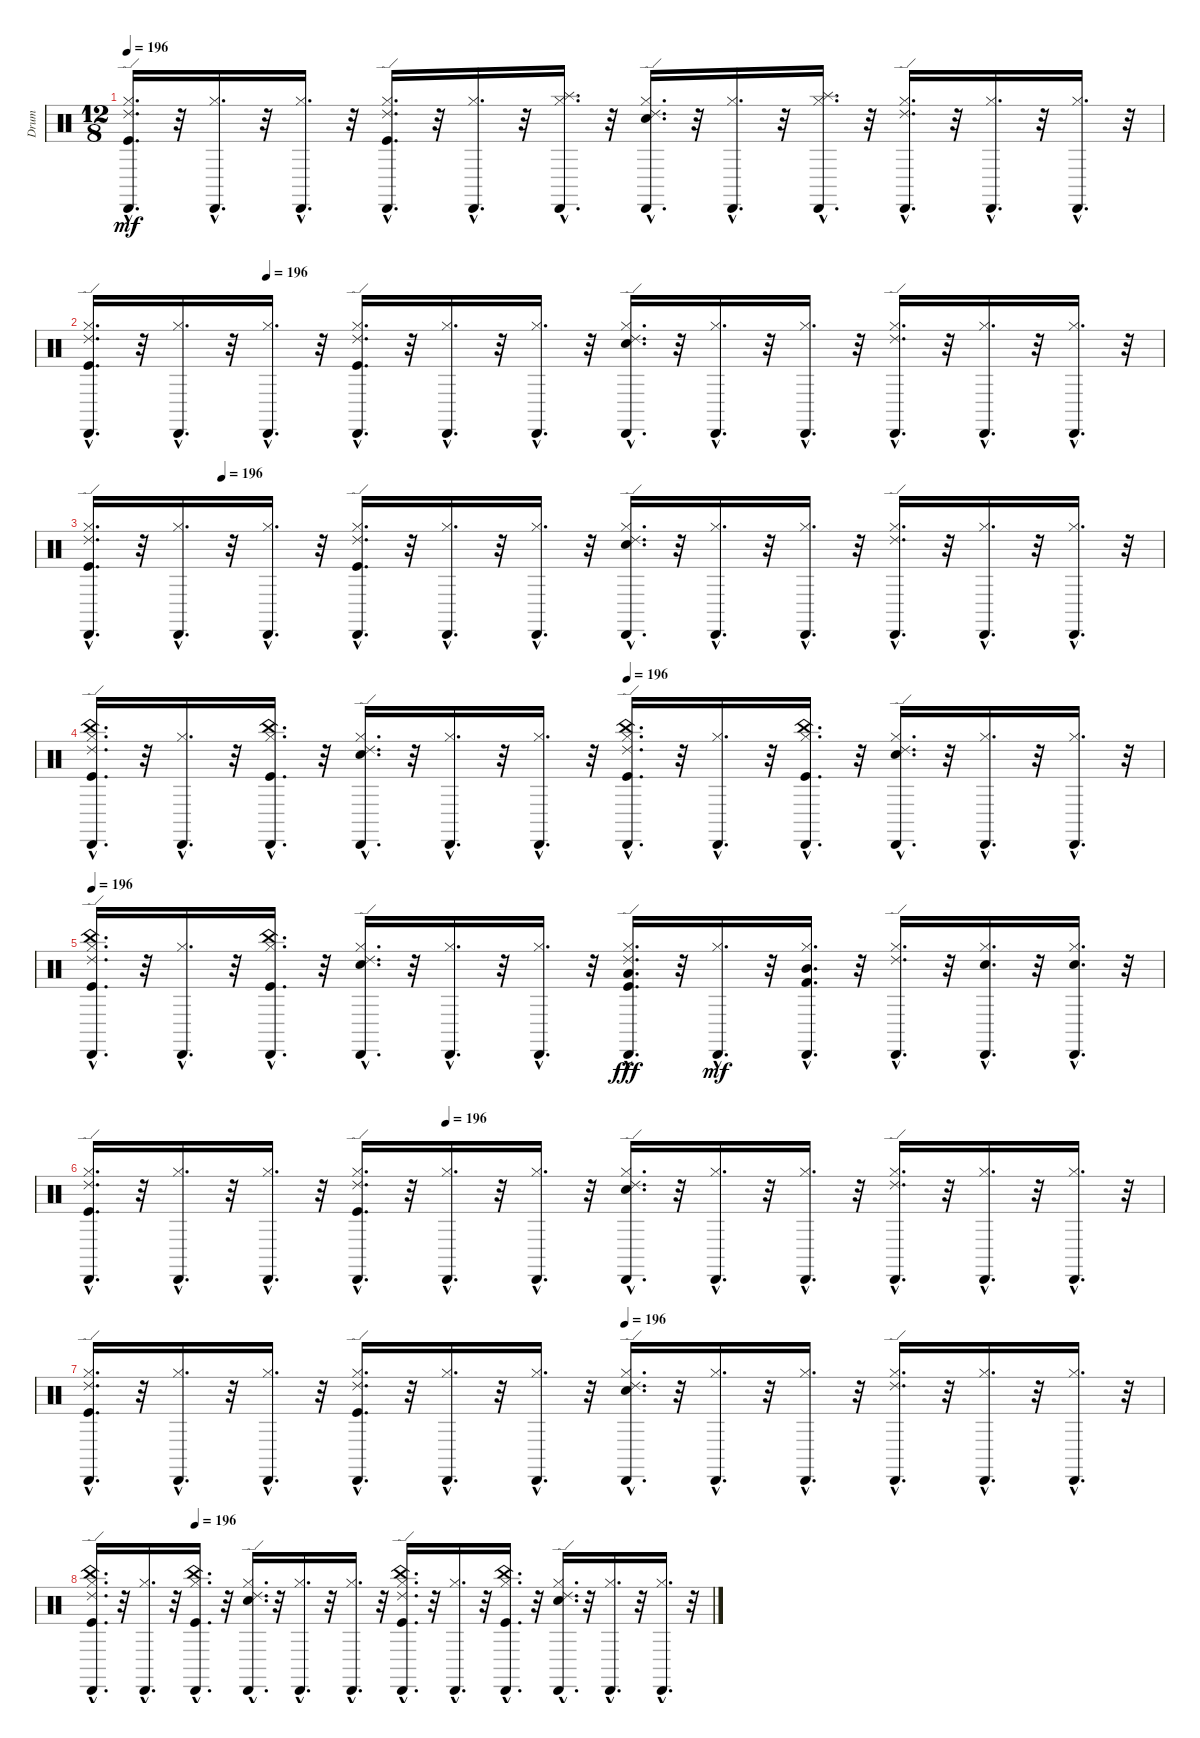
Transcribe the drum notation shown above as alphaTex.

\track ("Drum" "Drum") {instrument percussion}
\staff {score}
\articulation defaults
\ts (12 8)
\tempo 196
\clef neutral
\ks c
("Cabasa (hit)"{hac} "Kick (hit)"{hac} "Ride (edge) 2"{hac} "Hi-Hat (closed)"{hac}).16{d dy mf} r.32 ("Hi-Hat (closed)"{hac} "Cabasa (hit)"{hac}).16{d} r.32 ("Cabasa (hit)"{hac} "Hi-Hat (closed)"{hac}).16{d} r.32 ("Ride (edge) 2"{hac} "Cabasa (hit)"{hac} "Kick (hit)"{hac} "Hi-Hat (closed)"{hac}).16{d} r.32 ("Hi-Hat (closed)"{hac} "Cabasa (hit)"{hac}).16{d} r.32 ("Cabasa (hit)"{hac} "Splash (hit)"{hac} "Hi-Hat (closed)"{hac}).16{d} r.32 ("Ride (edge) 2"{hac} "Cabasa (hit)"{hac} "Hi-Hat (closed)"{hac} "Snare (hit) 2"{hac}).16{d} r.32 ("Cabasa (hit)"{hac} "Hi-Hat (closed)"{hac}).16{d} r.32 ("Hi-Hat (closed)"{hac} "Splash (hit)"{hac} "Cabasa (hit)"{hac}).16{d} r.32 ("Cabasa (hit)"{hac} "Ride (edge) 2"{hac} "Hi-Hat (closed)"{hac}).16{d} r.32 ("Cabasa (hit)"{hac} "Hi-Hat (closed)"{hac}).16{d} r.32 ("Hi-Hat (closed)"{hac} "Cabasa (hit)"{hac}).16{d} r.32 |
\tempo (196 0.16666666666666666)
("Hi-Hat (closed)"{hac} "Kick (hit)"{hac} "Cabasa (hit)"{hac} "Ride (edge) 2"{hac}).16{d} r.32 ("Hi-Hat (closed)"{hac} "Cabasa (hit)"{hac}).16{d} r.32 ("Hi-Hat (closed)"{hac} "Cabasa (hit)"{hac}).16{d} r.32 ("Hi-Hat (closed)"{hac} "Kick (hit)"{hac} "Cabasa (hit)"{hac} "Ride (edge) 2"{hac}).16{d} r.32 ("Hi-Hat (closed)"{hac} "Cabasa (hit)"{hac}).16{d} r.32 ("Hi-Hat (closed)"{hac} "Cabasa (hit)"{hac}).16{d} r.32 ("Hi-Hat (closed)"{hac} "Snare (hit) 2"{hac} "Cabasa (hit)"{hac} "Ride (edge) 2"{hac}).16{d} r.32 ("Hi-Hat (closed)"{hac} "Cabasa (hit)"{hac}).16{d} r.32 ("Hi-Hat (closed)"{hac} "Cabasa (hit)"{hac}).16{d} r.32 ("Hi-Hat (closed)"{hac} "Cabasa (hit)"{hac} "Ride (edge) 2"{hac}).16{d} r.32 ("Hi-Hat (closed)"{hac} "Cabasa (hit)"{hac}).16{d} r.32 ("Hi-Hat (closed)"{hac} "Cabasa (hit)"{hac}).16{d} r.32 |
\tempo (196 0.125)
("Ride (edge) 2"{hac} "Cabasa (hit)"{hac} "Kick (hit)"{hac} "Hi-Hat (closed)"{hac}).16{d} r.32 ("Cabasa (hit)"{hac} "Hi-Hat (closed)"{hac}).16{d} r.32 ("Cabasa (hit)"{hac} "Hi-Hat (closed)"{hac}).16{d} r.32 ("Ride (edge) 2"{hac} "Cabasa (hit)"{hac} "Kick (hit)"{hac} "Hi-Hat (closed)"{hac}).16{d} r.32 ("Cabasa (hit)"{hac} "Hi-Hat (closed)"{hac}).16{d} r.32 ("Cabasa (hit)"{hac} "Hi-Hat (closed)"{hac}).16{d} r.32 ("Ride (edge) 2"{hac} "Cabasa (hit)"{hac} "Snare (hit) 2"{hac} "Hi-Hat (closed)"{hac}).16{d} r.32 ("Cabasa (hit)"{hac} "Hi-Hat (closed)"{hac}).16{d} r.32 ("Cabasa (hit)"{hac} "Hi-Hat (closed)"{hac}).16{d} r.32 ("Ride (edge) 2"{hac} "Cabasa (hit)"{hac} "Hi-Hat (closed)"{hac}).16{d} r.32 ("Cabasa (hit)"{hac} "Hi-Hat (closed)"{hac}).16{d} r.32 ("Cabasa (hit)"{hac} "Hi-Hat (closed)"{hac}).16{d} r.32 |
\tempo (196 0.5)
("Hi-Hat (closed)"{hac} "Kick (hit)"{hac} "China (hit)"{hac} "Ride (edge) 2"{hac} "Cabasa (hit)"{hac}).16{d} r.32 ("Cabasa (hit)"{hac} "Hi-Hat (closed)"{hac}).16{d} r.32 ("Hi-Hat (closed)"{hac} "Cabasa (hit)"{hac} "China (hit)"{hac} "Kick (hit)"{hac}).16{d} r.32 ("Hi-Hat (closed)"{hac} "Cabasa (hit)"{hac} "Ride (edge) 2"{hac} "Snare (hit) 2"{hac}).16{d} r.32 ("Hi-Hat (closed)"{hac} "Cabasa (hit)"{hac}).16{d} r.32 ("Cabasa (hit)"{hac} "Hi-Hat (closed)"{hac}).16{d} r.32 ("Ride (edge) 2"{hac} "Hi-Hat (closed)"{hac} "Kick (hit)"{hac} "China (hit)"{hac} "Cabasa (hit)"{hac}).16{d} r.32 ("Hi-Hat (closed)"{hac} "Cabasa (hit)"{hac}).16{d} r.32 ("China (hit)"{hac} "Cabasa (hit)"{hac} "Kick (hit)"{hac} "Hi-Hat (closed)"{hac}).16{d} r.32 ("Ride (edge) 2"{hac} "Cabasa (hit)"{hac} "Hi-Hat (closed)"{hac} "Snare (hit) 2"{hac}).16{d} r.32 ("Cabasa (hit)"{hac} "Hi-Hat (closed)"{hac}).16{d} r.32 ("Cabasa (hit)"{hac} "Hi-Hat (closed)"{hac}).16{d} r.32 |
\tempo 196
("China (hit)"{hac} "Kick (hit)"{hac} "Hi-Hat (closed)"{hac} "Cabasa (hit)"{hac} "Ride (edge) 2"{hac}).16{d} r.32 ("Hi-Hat (closed)"{hac} "Cabasa (hit)"{hac}).16{d} r.32 ("Hi-Hat (closed)"{hac} "Kick (hit)"{hac} "China (hit)"{hac} "Cabasa (hit)"{hac}).16{d} r.32 ("Ride (edge) 2"{hac} "Hi-Hat (closed)"{hac} "Snare (hit) 2"{hac} "Cabasa (hit)"{hac}).16{d} r.32 ("Cabasa (hit)"{hac} "Hi-Hat (closed)"{hac}).16{d} r.32 ("Hi-Hat (closed)"{hac} "Cabasa (hit)"{hac}).16{d} r.32 ("Hi-Hat (closed)"{hac} "Ride (edge) 2"{hac} "Kick (hit)"{hac} "Cabasa (hit)"{hac} "Low Tom (hit)"{hac}).16{d dy fff} r.32 ("Cabasa (hit)"{hac} "Hi-Hat (closed)"{hac}).16{d dy mf} r.32 ("Cabasa (hit)"{hac} "Kick (hit) 2"{hac} "Mid Tom (hit)"{hac} "Hi-Hat (closed)"{hac}).16{d} r.32 ("Cabasa (hit)"{hac} "Hi-Hat (closed)"{hac} "Ride (edge) 2"{hac}).16{d} r.32 ("Hi-Hat (closed)"{hac} "Cabasa (hit)"{hac} "Snare (hit) 2"{hac}).16{d} r.32 ("Cabasa (hit)"{hac} "Hi-Hat (closed)"{hac} "Snare (hit) 2"{hac}).16{d} r.32 |
\tempo (196 0.3333333333333333)
("Hi-Hat (closed)"{hac} "Kick (hit)"{hac} "Cabasa (hit)"{hac} "Ride (edge) 2"{hac}).16{d} r.32 ("Hi-Hat (closed)"{hac} "Cabasa (hit)"{hac}).16{d} r.32 ("Hi-Hat (closed)"{hac} "Cabasa (hit)"{hac}).16{d} r.32 ("Hi-Hat (closed)"{hac} "Kick (hit)"{hac} "Cabasa (hit)"{hac} "Ride (edge) 2"{hac}).16{d} r.32 ("Hi-Hat (closed)"{hac} "Cabasa (hit)"{hac}).16{d} r.32 ("Hi-Hat (closed)"{hac} "Cabasa (hit)"{hac}).16{d} r.32 ("Hi-Hat (closed)"{hac} "Snare (hit) 2"{hac} "Cabasa (hit)"{hac} "Ride (edge) 2"{hac}).16{d} r.32 ("Hi-Hat (closed)"{hac} "Cabasa (hit)"{hac}).16{d} r.32 ("Hi-Hat (closed)"{hac} "Cabasa (hit)"{hac}).16{d} r.32 ("Hi-Hat (closed)"{hac} "Cabasa (hit)"{hac} "Ride (edge) 2"{hac}).16{d} r.32 ("Hi-Hat (closed)"{hac} "Cabasa (hit)"{hac}).16{d} r.32 ("Hi-Hat (closed)"{hac} "Cabasa (hit)"{hac}).16{d} r.32 |
\tempo (196 0.5)
("Cabasa (hit)"{hac} "Ride (edge) 2"{hac} "Hi-Hat (closed)"{hac} "Kick (hit)"{hac}).16{d} r.32 ("Hi-Hat (closed)"{hac} "Cabasa (hit)"{hac}).16{d} r.32 ("Cabasa (hit)"{hac} "Hi-Hat (closed)"{hac}).16{d} r.32 ("Kick (hit)"{hac} "Ride (edge) 2"{hac} "Cabasa (hit)"{hac} "Hi-Hat (closed)"{hac}).16{d} r.32 ("Cabasa (hit)"{hac} "Hi-Hat (closed)"{hac}).16{d} r.32 ("Hi-Hat (closed)"{hac} "Cabasa (hit)"{hac}).16{d} r.32 ("Cabasa (hit)"{hac} "Ride (edge) 2"{hac} "Snare (hit) 2"{hac} "Hi-Hat (closed)"{hac}).16{d} r.32 ("Cabasa (hit)"{hac} "Hi-Hat (closed)"{hac}).16{d} r.32 ("Hi-Hat (closed)"{hac} "Cabasa (hit)"{hac}).16{d} r.32 ("Ride (edge) 2"{hac} "Hi-Hat (closed)"{hac} "Cabasa (hit)"{hac}).16{d} r.32 ("Cabasa (hit)"{hac} "Hi-Hat (closed)"{hac}).16{d} r.32 ("Hi-Hat (closed)"{hac} "Cabasa (hit)"{hac}).16{d} r.32 |
\tempo (196 0.16666666666666666)
("Kick (hit)"{hac} "China (hit)"{hac} "Cabasa (hit)"{hac} "Ride (edge) 2"{hac} "Hi-Hat (closed)"{hac}).16{d} r.32 ("Hi-Hat (closed)"{hac} "Cabasa (hit)"{hac}).16{d} r.32 ("Cabasa (hit)"{hac} "Hi-Hat (closed)"{hac} "China (hit)"{hac} "Kick (hit)"{hac}).16{d} r.32 ("Cabasa (hit)"{hac} "Hi-Hat (closed)"{hac} "Ride (edge) 2"{hac} "Snare (hit) 2"{hac}).16{d} r.32 ("Hi-Hat (closed)"{hac} "Cabasa (hit)"{hac}).16{d} r.32 ("Cabasa (hit)"{hac} "Hi-Hat (closed)"{hac}).16{d} r.32 ("Hi-Hat (closed)"{hac} "Cabasa (hit)"{hac} "Kick (hit)"{hac} "Ride (edge) 2"{hac} "China (hit)"{hac}).16{d} r.32 ("Hi-Hat (closed)"{hac} "Cabasa (hit)"{hac}).16{d} r.32 ("Kick (hit)"{hac} "China (hit)"{hac} "Cabasa (hit)"{hac} "Hi-Hat (closed)"{hac}).16{d} r.32 ("Hi-Hat (closed)"{hac} "Snare (hit) 2"{hac} "Ride (edge) 2"{hac} "Cabasa (hit)"{hac}).16{d} r.32 ("Cabasa (hit)"{hac} "Hi-Hat (closed)"{hac}).16{d} r.32 ("Cabasa (hit)"{hac} "Hi-Hat (closed)"{hac}).16{d} r.32
